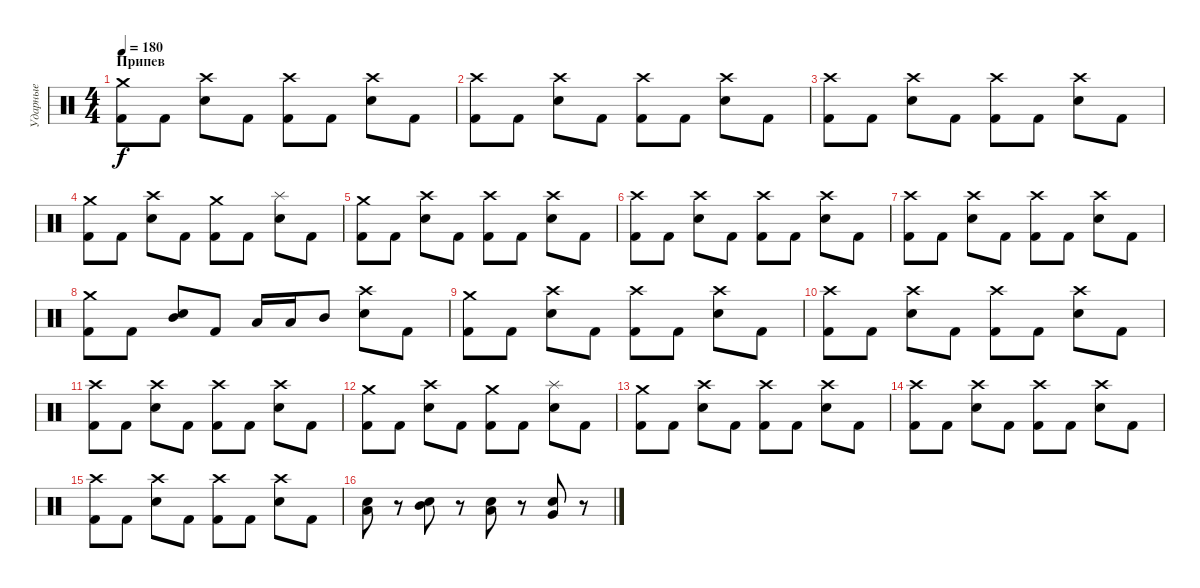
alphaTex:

\track ("Ударные" "Ударные") {instrument percussion}
\staff {score}
\articulation defaults
\ts (4 4)
\section ("" "Припев")
\tempo 180
\clef neutral
\ks c
("Crash medium (hit)" "Kick (hit) 2").8{dy f} "Kick (hit) 2".8 ("Crash high (hit)" "Snare (hit) 2").8 "Kick (hit) 2".8 ("Crash high (hit)" "Kick (hit) 2").8 "Kick (hit) 2".8 ("Crash high (hit)" "Snare (hit) 2").8 "Kick (hit) 2".8 |
("Crash high (hit)" "Kick (hit) 2").8 "Kick (hit) 2".8 ("Crash high (hit)" "Snare (hit) 2").8 "Kick (hit) 2".8 ("Crash high (hit)" "Kick (hit) 2").8 "Kick (hit) 2".8 ("Crash high (hit)" "Snare (hit) 2").8 "Kick (hit) 2".8 |
("Crash high (hit)" "Kick (hit) 2").8 "Kick (hit) 2".8 ("Crash high (hit)" "Snare (hit) 2").8 "Kick (hit) 2".8 ("Crash high (hit)" "Kick (hit) 2").8 "Kick (hit) 2".8 ("Crash high (hit)" "Snare (hit) 2").8 "Kick (hit) 2".8 |
("Crash medium (hit)" "Kick (hit) 2").8 "Kick (hit) 2".8 ("Crash high (hit)" "Snare (hit) 2").8 "Kick (hit) 2".8 ("Crash medium (hit)" "Kick (hit) 2").8 "Kick (hit) 2".8 ("Splash (hit)" "Snare (hit) 2").8 "Kick (hit) 2".8 |
("Crash medium (hit)" "Kick (hit) 2").8 "Kick (hit) 2".8 ("Crash high (hit)" "Snare (hit) 2").8 "Kick (hit) 2".8 ("Crash high (hit)" "Kick (hit) 2").8 "Kick (hit) 2".8 ("Crash high (hit)" "Snare (hit) 2").8 "Kick (hit) 2".8 |
("Crash high (hit)" "Kick (hit) 2").8 "Kick (hit) 2".8 ("Crash high (hit)" "Snare (hit) 2").8 "Kick (hit) 2".8 ("Crash high (hit)" "Kick (hit) 2").8 "Kick (hit) 2".8 ("Crash high (hit)" "Snare (hit) 2").8 "Kick (hit) 2".8 |
("Crash high (hit)" "Kick (hit) 2").8 "Kick (hit) 2".8 ("Crash high (hit)" "Snare (hit) 2").8 "Kick (hit) 2".8 ("Crash high (hit)" "Kick (hit) 2").8 "Kick (hit) 2".8 ("Crash high (hit)" "Snare (hit) 2").8 "Kick (hit) 2".8 |
("Crash medium (hit)" "Kick (hit) 2").8 "Kick (hit) 2".8 ("Mid Tom (hit)" "Snare (hit) 2").8 "Kick (hit) 2".8 "Low Floor Tom (hit)".16 "Low Floor Tom (hit)".16 "Mid Tom (hit)".8 ("Crash high (hit)" "Snare (hit) 2").8 "Kick (hit) 2".8 |
("Crash medium (hit)" "Kick (hit) 2").8 "Kick (hit) 2".8 ("Crash high (hit)" "Snare (hit) 2").8 "Kick (hit) 2".8 ("Crash high (hit)" "Kick (hit) 2").8 "Kick (hit) 2".8 ("Crash high (hit)" "Snare (hit) 2").8 "Kick (hit) 2".8 |
("Crash high (hit)" "Kick (hit) 2").8 "Kick (hit) 2".8 ("Crash high (hit)" "Snare (hit) 2").8 "Kick (hit) 2".8 ("Crash high (hit)" "Kick (hit) 2").8 "Kick (hit) 2".8 ("Crash high (hit)" "Snare (hit) 2").8 "Kick (hit) 2".8 |
("Crash high (hit)" "Kick (hit) 2").8 "Kick (hit) 2".8 ("Crash high (hit)" "Snare (hit) 2").8 "Kick (hit) 2".8 ("Crash high (hit)" "Kick (hit) 2").8 "Kick (hit) 2".8 ("Crash high (hit)" "Snare (hit) 2").8 "Kick (hit) 2".8 |
("Crash medium (hit)" "Kick (hit) 2").8 "Kick (hit) 2".8 ("Crash high (hit)" "Snare (hit) 2").8 "Kick (hit) 2".8 ("Crash medium (hit)" "Kick (hit) 2").8 "Kick (hit) 2".8 ("Splash (hit)" "Snare (hit) 2").8 "Kick (hit) 2".8 |
("Crash medium (hit)" "Kick (hit) 2").8 "Kick (hit) 2".8 ("Crash high (hit)" "Snare (hit) 2").8 "Kick (hit) 2".8 ("Crash high (hit)" "Kick (hit) 2").8 "Kick (hit) 2".8 ("Crash high (hit)" "Snare (hit) 2").8 "Kick (hit) 2".8 |
("Crash high (hit)" "Kick (hit) 2").8 "Kick (hit) 2".8 ("Crash high (hit)" "Snare (hit) 2").8 "Kick (hit) 2".8 ("Crash high (hit)" "Kick (hit) 2").8 "Kick (hit) 2".8 ("Crash high (hit)" "Snare (hit) 2").8 "Kick (hit) 2".8 |
("Crash high (hit)" "Kick (hit) 2").8 "Kick (hit) 2".8 ("Crash high (hit)" "Snare (hit) 2").8 "Kick (hit) 2".8 ("Crash high (hit)" "Kick (hit) 2").8 "Kick (hit) 2".8 ("Crash high (hit)" "Snare (hit) 2").8 "Kick (hit) 2".8 |
("Low Floor Tom (hit)" "Snare (hit) 2").8 r.8 ("Mid Tom (hit)" "Snare (hit) 2").8 r.8 ("Low Tom (hit)" "Snare (hit) 2").8 r.8 ("Very Low Tom (hit)" "Snare (hit) 2").8 r.8
